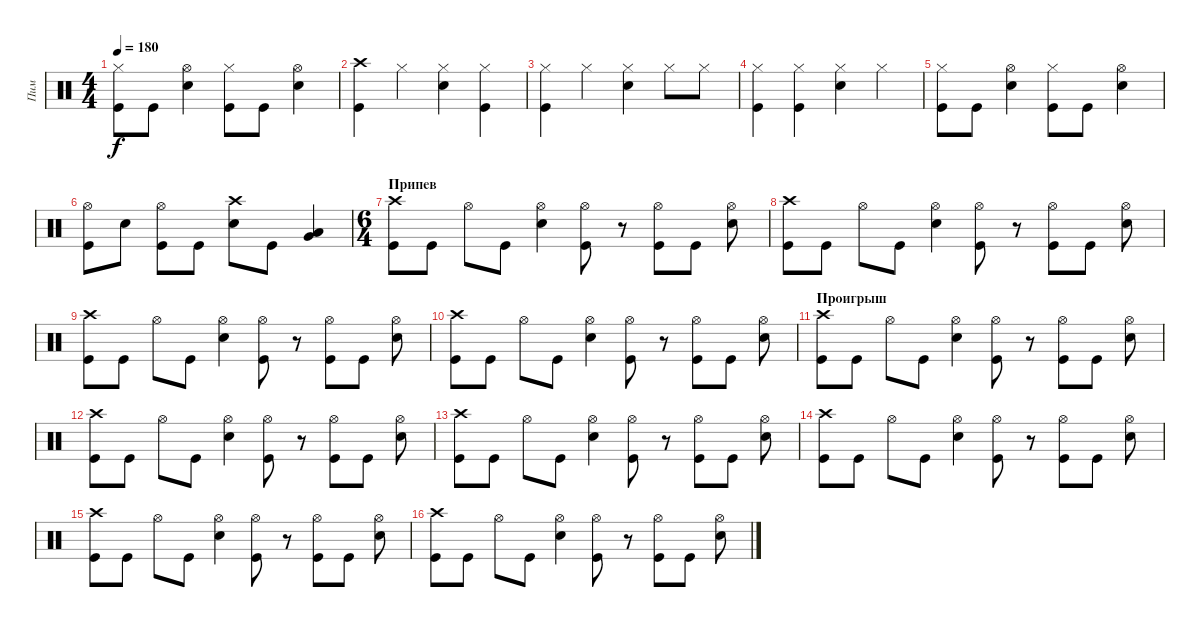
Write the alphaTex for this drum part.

\track ("Пим" "Пим") {instrument percussion}
\staff {score}
\articulation defaults
\ts (4 4)
\tempo 180
\clef neutral
\ks c
("Hi-Hat (closed)" "Kick (hit)").8{dy f} "Kick (hit)".8 ("Hi-Hat (open)" "Snare (hit) 2").4 ("Hi-Hat (closed)" "Kick (hit)").8 "Kick (hit)".8 ("Hi-Hat (open)" "Snare (hit) 2").4 |
("Crash high (hit)" "Kick (hit)").4 "Hi-Hat (closed)".4 ("Hi-Hat (closed)" "Snare (hit) 2").4 ("Hi-Hat (closed)" "Kick (hit)").4 |
("Hi-Hat (closed)" "Kick (hit)").4 "Hi-Hat (closed)".4 ("Hi-Hat (closed)" "Snare (hit) 2").4 "Hi-Hat (closed)".8 "Hi-Hat (closed)".8 |
("Hi-Hat (closed)" "Kick (hit)").4 ("Hi-Hat (closed)" "Kick (hit)").4 ("Hi-Hat (closed)" "Snare (hit) 2").4 "Hi-Hat (closed)".4 |
("Hi-Hat (closed)" "Kick (hit)").8 "Kick (hit)".8 ("Hi-Hat (open)" "Snare (hit) 2").4 ("Hi-Hat (closed)" "Kick (hit)").8 "Kick (hit)".8 ("Hi-Hat (open)" "Snare (hit) 2").4 |
("Hi-Hat (open)" "Kick (hit)").8 "Snare (hit) 2".8 ("Hi-Hat (open)" "Kick (hit)").8 "Kick (hit)".8 ("Crash high (hit)" "Snare (hit) 2").8 "Kick (hit)".8 ("Low Tom (hit)" "Very Low Tom (hit)").4 |
\ts (6 4)
\section ("" "Припев")
("Crash high (hit)" "Kick (hit)").8 "Kick (hit)".8 "Hi-Hat (open)".8 "Kick (hit)".8 ("Hi-Hat (open)" "Snare (hit) 2").4 ("Hi-Hat (open)" "Kick (hit)").8 r.8 ("Hi-Hat (open)" "Kick (hit)").8 "Kick (hit)".8 ("Hi-Hat (open)" "Snare (hit) 2").8 |
("Crash high (hit)" "Kick (hit)").8 "Kick (hit)".8 "Hi-Hat (open)".8 "Kick (hit)".8 ("Hi-Hat (open)" "Snare (hit) 2").4 ("Hi-Hat (open)" "Kick (hit)").8 r.8 ("Hi-Hat (open)" "Kick (hit)").8 "Kick (hit)".8 ("Hi-Hat (open)" "Snare (hit) 2").8 |
("Crash high (hit)" "Kick (hit)").8 "Kick (hit)".8 "Hi-Hat (open)".8 "Kick (hit)".8 ("Hi-Hat (open)" "Snare (hit) 2").4 ("Hi-Hat (open)" "Kick (hit)").8 r.8 ("Hi-Hat (open)" "Kick (hit)").8 "Kick (hit)".8 ("Hi-Hat (open)" "Snare (hit) 2").8 |
("Crash high (hit)" "Kick (hit)").8 "Kick (hit)".8 "Hi-Hat (open)".8 "Kick (hit)".8 ("Hi-Hat (open)" "Snare (hit) 2").4 ("Hi-Hat (open)" "Kick (hit)").8 r.8 ("Hi-Hat (open)" "Kick (hit)").8 "Kick (hit)".8 ("Hi-Hat (open)" "Snare (hit) 2").8 |
\section ("" "Проигрыш")
("Crash high (hit)" "Kick (hit)").8 "Kick (hit)".8 "Hi-Hat (open)".8 "Kick (hit)".8 ("Hi-Hat (open)" "Snare (hit) 2").4 ("Hi-Hat (open)" "Kick (hit)").8 r.8 ("Hi-Hat (open)" "Kick (hit)").8 "Kick (hit)".8 ("Hi-Hat (open)" "Snare (hit) 2").8 |
("Crash high (hit)" "Kick (hit)").8 "Kick (hit)".8 "Hi-Hat (open)".8 "Kick (hit)".8 ("Hi-Hat (open)" "Snare (hit) 2").4 ("Hi-Hat (open)" "Kick (hit)").8 r.8 ("Hi-Hat (open)" "Kick (hit)").8 "Kick (hit)".8 ("Hi-Hat (open)" "Snare (hit) 2").8 |
("Crash high (hit)" "Kick (hit)").8 "Kick (hit)".8 "Hi-Hat (open)".8 "Kick (hit)".8 ("Hi-Hat (open)" "Snare (hit) 2").4 ("Hi-Hat (open)" "Kick (hit)").8 r.8 ("Hi-Hat (open)" "Kick (hit)").8 "Kick (hit)".8 ("Hi-Hat (open)" "Snare (hit) 2").8 |
("Crash high (hit)" "Kick (hit)").8 "Kick (hit)".8 "Hi-Hat (open)".8 "Kick (hit)".8 ("Hi-Hat (open)" "Snare (hit) 2").4 ("Hi-Hat (open)" "Kick (hit)").8 r.8 ("Hi-Hat (open)" "Kick (hit)").8 "Kick (hit)".8 ("Hi-Hat (open)" "Snare (hit) 2").8 |
("Crash high (hit)" "Kick (hit)").8 "Kick (hit)".8 "Hi-Hat (open)".8 "Kick (hit)".8 ("Hi-Hat (open)" "Snare (hit) 2").4 ("Hi-Hat (open)" "Kick (hit)").8 r.8 ("Hi-Hat (open)" "Kick (hit)").8 "Kick (hit)".8 ("Hi-Hat (open)" "Snare (hit) 2").8 |
("Crash high (hit)" "Kick (hit)").8 "Kick (hit)".8 "Hi-Hat (open)".8 "Kick (hit)".8 ("Hi-Hat (open)" "Snare (hit) 2").4 ("Hi-Hat (open)" "Kick (hit)").8 r.8 ("Hi-Hat (open)" "Kick (hit)").8 "Kick (hit)".8 ("Hi-Hat (open)" "Snare (hit) 2").8
